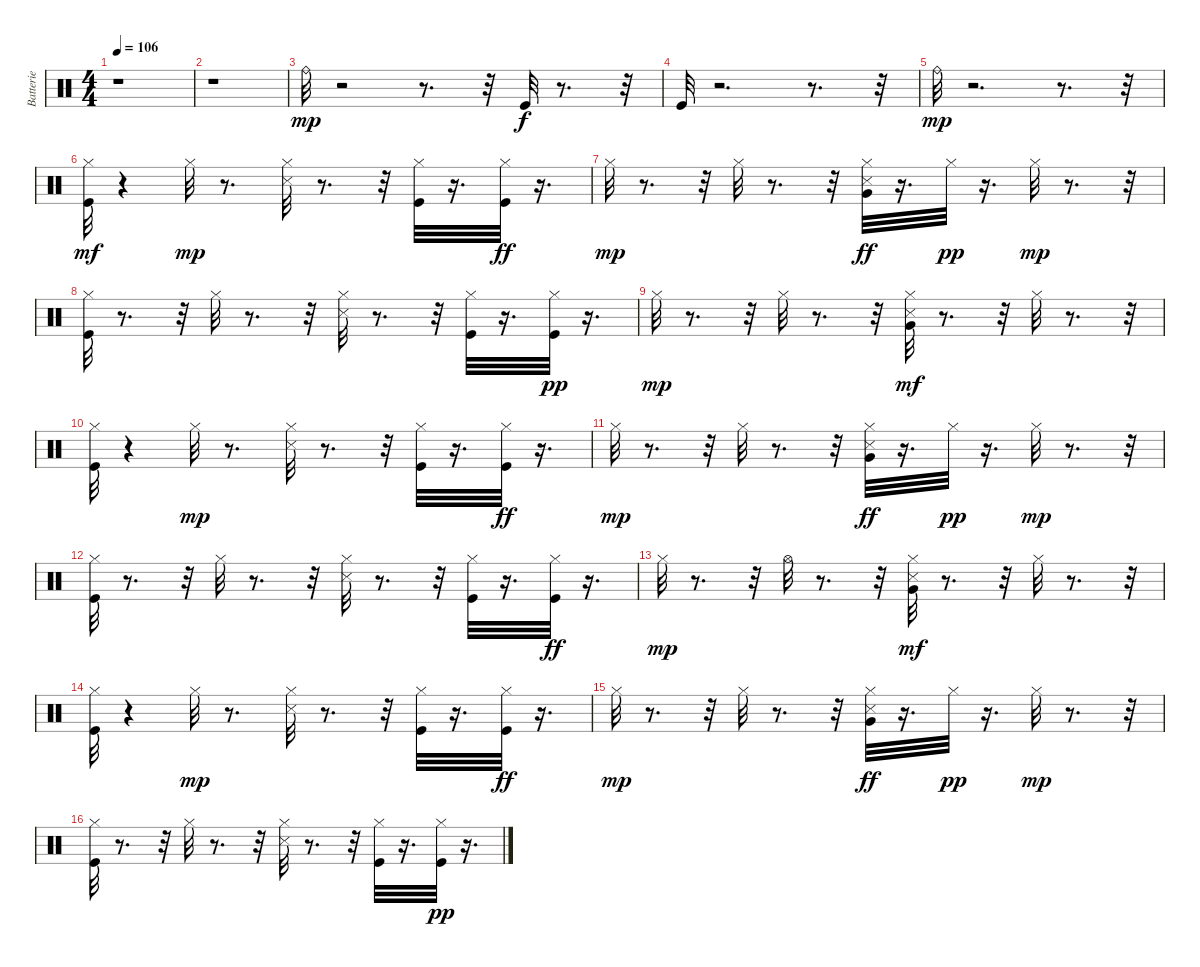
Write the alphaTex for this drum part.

\track ("Batterie" "Batterie") {instrument percussion}
\staff {score}
\articulation defaults
\ts (4 4)
\tempo 106
\clef neutral
\ks c
r.1{dy mp} |
r.1 |
"Ride (bell)".32 r.2 r.8{d} r.32 "Kick (hit)".32{dy f} r.8{d} r.32 |
"Kick (hit)".32 r.2{d} r.8{d} r.32 |
"Ride (bell)".32{dy mp} r.2{d} r.8{d} r.32 |
("Kick (hit)" "Hi-Hat (closed)").32{dy mf} r.4 "Hi-Hat (closed)".32{dy mp} r.8{d} ("Snare (side stick) 3" "Hi-Hat (closed)").32 r.8{d} r.32 ("Hi-Hat (closed)" "Kick (hit)").32 r.16{d} ("Hi-Hat (closed)" "Kick (hit)").32{dy ff} r.16{d} |
"Hi-Hat (closed)".32{dy mp} r.8{d} r.32 "Hi-Hat (closed)".32 r.8{d} r.32 ("Hi-Hat (closed)" "Very Low Tom (hit)" "Snare (side stick) 3").32{dy ff} r.16{d} "Hi-Hat (closed)".32{dy pp} r.16{d} "Hi-Hat (closed)".32{dy mp} r.8{d} r.32 |
("Hi-Hat (closed)" "Kick (hit)").32 r.8{d} r.32 "Hi-Hat (closed)".32 r.8{d} r.32 ("Snare (side stick) 3" "Hi-Hat (closed)").32 r.8{d} r.32 ("Kick (hit)" "Hi-Hat (closed)").32 r.16{d} ("Kick (hit)" "Hi-Hat (closed)").32{dy pp} r.16{d} |
"Hi-Hat (closed)".32{dy mp} r.8{d} r.32 "Hi-Hat (closed)".32 r.8{d} r.32 ("Hi-Hat (closed)" "Snare (side stick) 3" "Very Low Tom (hit)").32{dy mf} r.8{d} r.32 "Hi-Hat (closed)".32 r.8{d} r.32 |
("Kick (hit)" "Hi-Hat (closed)").32 r.4 "Hi-Hat (closed)".32{dy mp} r.8{d} ("Snare (side stick) 3" "Hi-Hat (closed)").32 r.8{d} r.32 ("Hi-Hat (closed)" "Kick (hit)").32 r.16{d} ("Hi-Hat (closed)" "Kick (hit)").32{dy ff} r.16{d} |
"Hi-Hat (closed)".32{dy mp} r.8{d} r.32 "Hi-Hat (closed)".32 r.8{d} r.32 ("Hi-Hat (closed)" "Very Low Tom (hit)" "Snare (side stick) 3").32{dy ff} r.16{d} "Hi-Hat (closed)".32{dy pp} r.16{d} "Hi-Hat (closed)".32{dy mp} r.8{d} r.32 |
("Hi-Hat (closed)" "Kick (hit)").32 r.8{d} r.32 "Hi-Hat (closed)".32 r.8{d} r.32 ("Snare (side stick) 3" "Hi-Hat (closed)").32 r.8{d} r.32 ("Kick (hit)" "Hi-Hat (closed)").32 r.16{d} ("Hi-Hat (closed)" "Kick (hit)").32{dy ff} r.16{d} |
"Hi-Hat (closed)".32{dy mp} r.8{d} r.32 "Hi-Hat (open)".32 r.8{d} r.32 ("Hi-Hat (closed)" "Snare (side stick) 3" "Very Low Tom (hit)").32{dy mf} r.8{d} r.32 "Hi-Hat (closed)".32 r.8{d} r.32 |
("Kick (hit)" "Hi-Hat (closed)").32 r.4 "Hi-Hat (closed)".32{dy mp} r.8{d} ("Snare (side stick) 3" "Hi-Hat (closed)").32 r.8{d} r.32 ("Hi-Hat (closed)" "Kick (hit)").32 r.16{d} ("Hi-Hat (closed)" "Kick (hit)").32{dy ff} r.16{d} |
"Hi-Hat (closed)".32{dy mp} r.8{d} r.32 "Hi-Hat (closed)".32 r.8{d} r.32 ("Hi-Hat (closed)" "Very Low Tom (hit)" "Snare (side stick) 3").32{dy ff} r.16{d} "Hi-Hat (closed)".32{dy pp} r.16{d} "Hi-Hat (closed)".32{dy mp} r.8{d} r.32 |
("Hi-Hat (closed)" "Kick (hit)").32 r.8{d} r.32 "Hi-Hat (closed)".32 r.8{d} r.32 ("Snare (side stick) 3" "Hi-Hat (closed)").32 r.8{d} r.32 ("Kick (hit)" "Hi-Hat (closed)").32 r.16{d} ("Kick (hit)" "Hi-Hat (closed)").32{dy pp} r.16{d}
